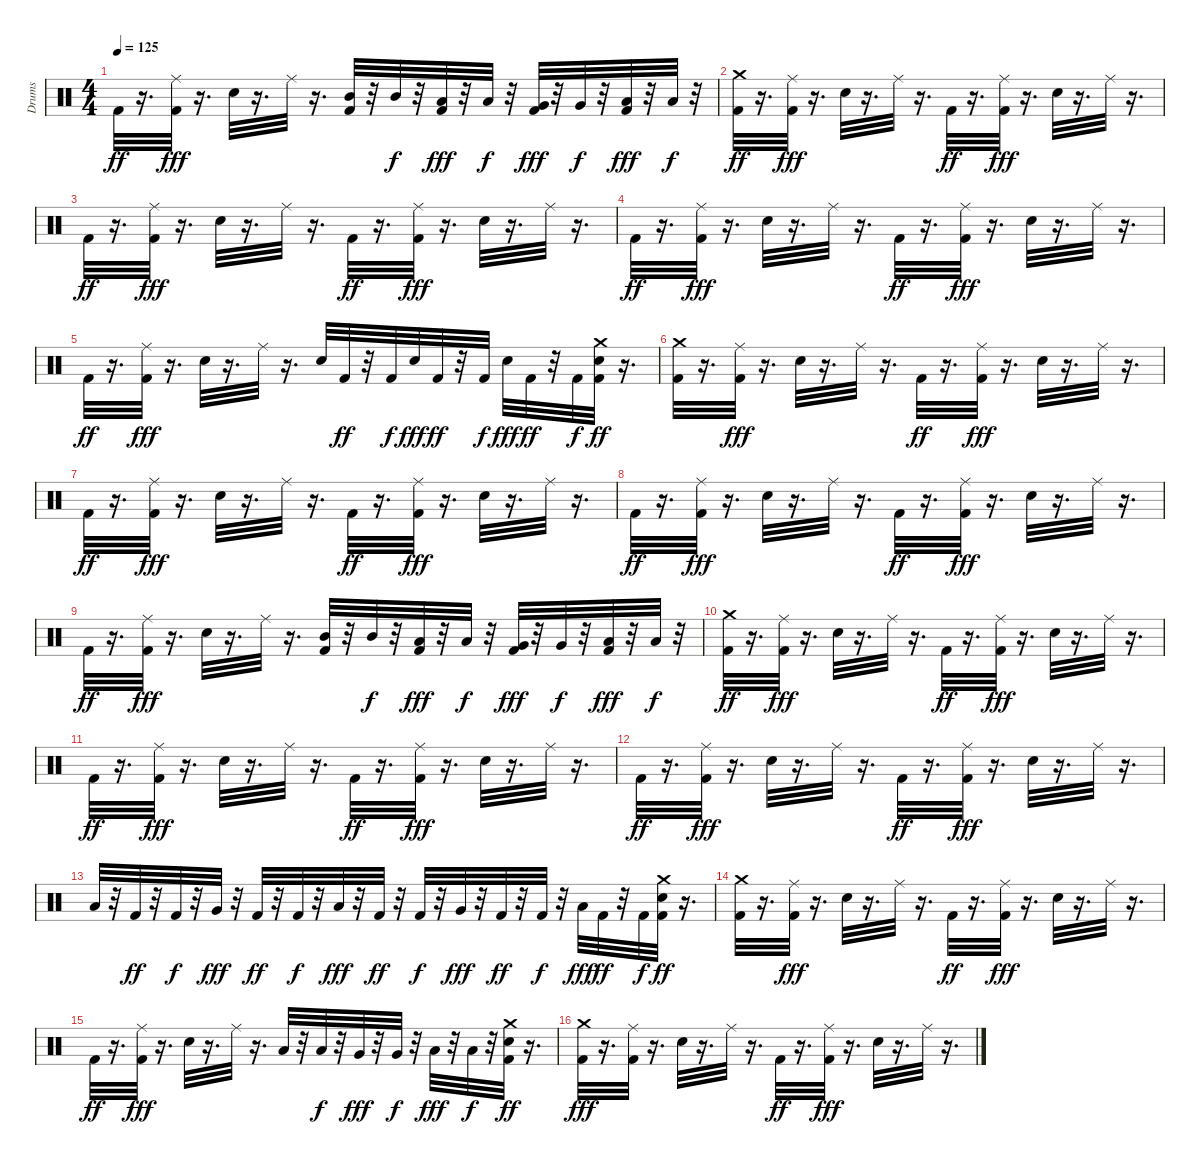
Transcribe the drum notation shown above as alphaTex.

\track ("Drums" "Drums") {instrument percussion}
\staff {score}
\articulation defaults
\ts (4 4)
\tempo 125
\clef neutral
\ks c "Kick (hit) 2".32{dy ff}
r.16{d} ("Ride (middle)" "Kick (hit) 2").32{dy fff} r.16{d} "Snare (hit) 2".32 r.16{d} "Ride (middle)".32 r.16{d} ("Kick (hit) 2" "Mid Tom (hit)").32 r.32 "Mid Tom (hit)".32{dy f} r.32 ("Kick (hit) 2" "Low Tom (hit)").32{dy fff} r.32 "Low Tom (hit)".32{dy f} r.32 ("Kick (hit) 2" "Very Low Tom (hit)").32{dy fff} r.32 "Very Low Tom (hit)".32{dy f} r.32 ("Kick (hit) 2" "Low Floor Tom (hit)").32{dy fff} r.32 "Low Floor Tom (hit)".32{dy f} r.32 |
("Crash medium (hit)" "Kick (hit) 2").32{dy ff} r.16{d} ("Ride (middle)" "Kick (hit) 2").32{dy fff} r.16{d} "Snare (hit) 2".32 r.16{d} "Ride (middle)".32 r.16{d} "Kick (hit) 2".32{dy ff} r.16{d} ("Ride (middle)" "Kick (hit) 2").32{dy fff} r.16{d} "Snare (hit) 2".32 r.16{d} "Ride (middle)".32 r.16{d} |
"Kick (hit) 2".32{dy ff} r.16{d} ("Ride (middle)" "Kick (hit) 2").32{dy fff} r.16{d} "Snare (hit) 2".32 r.16{d} "Ride (middle)".32 r.16{d} "Kick (hit) 2".32{dy ff} r.16{d} ("Ride (middle)" "Kick (hit) 2").32{dy fff} r.16{d} "Snare (hit) 2".32 r.16{d} "Ride (middle)".32 r.16{d} |
"Kick (hit) 2".32{dy ff} r.16{d} ("Ride (middle)" "Kick (hit) 2").32{dy fff} r.16{d} "Snare (hit) 2".32 r.16{d} "Ride (middle)".32 r.16{d} "Kick (hit) 2".32{dy ff} r.16{d} ("Ride (middle)" "Kick (hit) 2").32{dy fff} r.16{d} "Snare (hit) 2".32 r.16{d} "Ride (middle)".32 r.16{d} |
"Kick (hit) 2".32{dy ff} r.16{d} ("Ride (middle)" "Kick (hit) 2").32{dy fff} r.16{d} "Snare (hit) 2".32 r.16{d} "Ride (middle)".32 r.16{d} "Snare (hit) 2".32 "Kick (hit) 2".32{dy ff} r.32 "Kick (hit) 2".32{dy f} "Snare (hit) 2".32{dy fff} "Kick (hit) 2".32{dy ff} r.32 "Kick (hit) 2".32{dy f} "Snare (hit) 2".32{dy fff} "Kick (hit) 2".32{dy ff} r.32 "Kick (hit) 2".32{dy f} ("Crash medium (hit)" "Snare (hit) 2" "Kick (hit) 2").32{dy ff} r.16{d} |
("Crash medium (hit)" "Kick (hit) 2").32 r.16{d} ("Ride (middle)" "Kick (hit) 2").32{dy fff} r.16{d} "Snare (hit) 2".32 r.16{d} "Ride (middle)".32 r.16{d} "Kick (hit) 2".32{dy ff} r.16{d} ("Ride (middle)" "Kick (hit) 2").32{dy fff} r.16{d} "Snare (hit) 2".32 r.16{d} "Ride (middle)".32 r.16{d} |
"Kick (hit) 2".32{dy ff} r.16{d} ("Ride (middle)" "Kick (hit) 2").32{dy fff} r.16{d} "Snare (hit) 2".32 r.16{d} "Ride (middle)".32 r.16{d} "Kick (hit) 2".32{dy ff} r.16{d} ("Ride (middle)" "Kick (hit) 2").32{dy fff} r.16{d} "Snare (hit) 2".32 r.16{d} "Ride (middle)".32 r.16{d} |
"Kick (hit) 2".32{dy ff} r.16{d} ("Ride (middle)" "Kick (hit) 2").32{dy fff} r.16{d} "Snare (hit) 2".32 r.16{d} "Ride (middle)".32 r.16{d} "Kick (hit) 2".32{dy ff} r.16{d} ("Ride (middle)" "Kick (hit) 2").32{dy fff} r.16{d} "Snare (hit) 2".32 r.16{d} "Ride (middle)".32 r.16{d} |
"Kick (hit) 2".32{dy ff} r.16{d} ("Ride (middle)" "Kick (hit) 2").32{dy fff} r.16{d} "Snare (hit) 2".32 r.16{d} "Ride (middle)".32 r.16{d} ("Kick (hit) 2" "Mid Tom (hit)").32 r.32 "Mid Tom (hit)".32{dy f} r.32 ("Kick (hit) 2" "Low Tom (hit)").32{dy fff} r.32 "Low Tom (hit)".32{dy f} r.32 ("Kick (hit) 2" "Very Low Tom (hit)").32{dy fff} r.32 "Very Low Tom (hit)".32{dy f} r.32 ("Kick (hit) 2" "Low Floor Tom (hit)").32{dy fff} r.32 "Low Floor Tom (hit)".32{dy f} r.32 |
("Crash medium (hit)" "Kick (hit) 2").32{dy ff} r.16{d} ("Ride (middle)" "Kick (hit) 2").32{dy fff} r.16{d} "Snare (hit) 2".32 r.16{d} "Ride (middle)".32 r.16{d} "Kick (hit) 2".32{dy ff} r.16{d} ("Ride (middle)" "Kick (hit) 2").32{dy fff} r.16{d} "Snare (hit) 2".32 r.16{d} "Ride (middle)".32 r.16{d} |
"Kick (hit) 2".32{dy ff} r.16{d} ("Ride (middle)" "Kick (hit) 2").32{dy fff} r.16{d} "Snare (hit) 2".32 r.16{d} "Ride (middle)".32 r.16{d} "Kick (hit) 2".32{dy ff} r.16{d} ("Ride (middle)" "Kick (hit) 2").32{dy fff} r.16{d} "Snare (hit) 2".32 r.16{d} "Ride (middle)".32 r.16{d} |
"Kick (hit) 2".32{dy ff} r.16{d} ("Ride (middle)" "Kick (hit) 2").32{dy fff} r.16{d} "Snare (hit) 2".32 r.16{d} "Ride (middle)".32 r.16{d} "Kick (hit) 2".32{dy ff} r.16{d} ("Ride (middle)" "Kick (hit) 2").32{dy fff} r.16{d} "Snare (hit) 2".32 r.16{d} "Ride (middle)".32 r.16{d} |
"Low Tom (hit)".32 r.32 "Kick (hit) 2".32{dy ff} r.32 "Kick (hit) 2".32{dy f} r.32 "Very Low Tom (hit)".32{dy fff} r.32 "Kick (hit) 2".32{dy ff} r.32 "Kick (hit) 2".32{dy f} r.32 "Low Tom (hit)".32{dy fff} r.32 "Kick (hit) 2".32{dy ff} r.32 "Kick (hit) 2".32{dy f} r.32 "Very Low Tom (hit)".32{dy fff} r.32 "Kick (hit) 2".32{dy ff} r.32 "Kick (hit) 2".32{dy f} r.32 "Low Tom (hit)".32{dy fff} "Kick (hit) 2".32{dy ff} r.32 "Kick (hit) 2".32{dy f} ("Crash medium (hit)" "Snare (hit) 2" "Kick (hit) 2").32{dy ff} r.16{d} |
("Crash medium (hit)" "Kick (hit) 2").32 r.16{d} ("Ride (middle)" "Kick (hit) 2").32{dy fff} r.16{d} "Snare (hit) 2".32 r.16{d} "Ride (middle)".32 r.16{d} "Kick (hit) 2".32{dy ff} r.16{d} ("Ride (middle)" "Kick (hit) 2").32{dy fff} r.16{d} "Snare (hit) 2".32 r.16{d} "Ride (middle)".32 r.16{d} |
"Kick (hit) 2".32{dy ff} r.16{d} ("Ride (middle)" "Kick (hit) 2").32{dy fff} r.16{d} "Snare (hit) 2".32 r.16{d} "Ride (middle)".32 r.16{d} "Low Tom (hit)".32 r.32 "Low Tom (hit)".32{dy f} r.32 "Very Low Tom (hit)".32{dy fff} r.32 "Very Low Tom (hit)".32{dy f} r.32 "Low Floor Tom (hit)".32{dy fff} r.32 "Low Floor Tom (hit)".32{dy f} r.32 ("Crash medium (hit)" "Snare (hit) 2" "Kick (hit) 2").32{dy ff} r.16{d} |
("Kick (hit) 2" "Crash medium (hit)").32{dy fff} r.16{d} ("Ride (middle)" "Kick (hit) 2").32 r.16{d} "Snare (hit) 2".32 r.16{d} "Ride (middle)".32 r.16{d} "Kick (hit) 2".32{dy ff} r.16{d} ("Ride (middle)" "Kick (hit) 2").32{dy fff} r.16{d} "Snare (hit) 2".32 r.16{d} "Ride (middle)".32 r.16{d}
